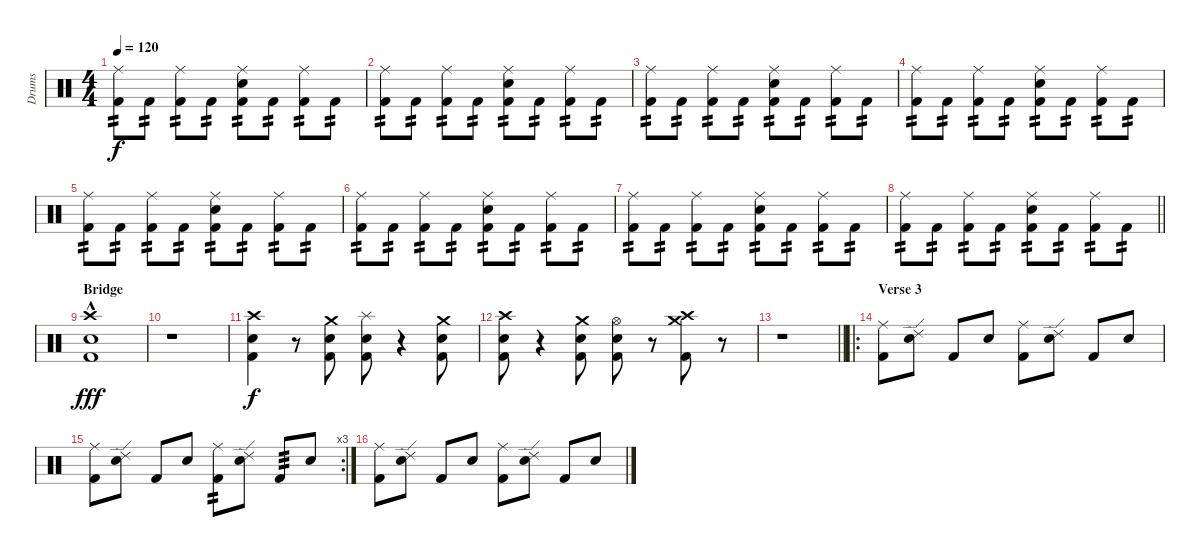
\track ("Drums " "Drums ") {instrument percussion}
\staff {score}
\articulation defaults
\ts (4 4)
\tempo 120
\clef neutral
\ks c
("Ride (middle)" "Kick (hit) 2").8{tp 2 dy f} "Kick (hit) 2".8{tp 2} ("Ride (middle)" "Kick (hit) 2").8{tp 2} "Kick (hit) 2".8{tp 2} ("Snare (hit) 2" "Ride (middle)" "Kick (hit) 2").8{tp 2} "Kick (hit) 2".8{tp 2} ("Ride (middle)" "Kick (hit) 2").8{tp 2} "Kick (hit) 2".8{tp 2} |
("Ride (middle)" "Kick (hit) 2").8{tp 2} "Kick (hit) 2".8{tp 2} ("Ride (middle)" "Kick (hit) 2").8{tp 2} "Kick (hit) 2".8{tp 2} ("Snare (hit) 2" "Ride (middle)" "Kick (hit) 2").8{tp 2} "Kick (hit) 2".8{tp 2} ("Ride (middle)" "Kick (hit) 2").8{tp 2} "Kick (hit) 2".8{tp 2} |
("Ride (middle)" "Kick (hit) 2").8{tp 2} "Kick (hit) 2".8{tp 2} ("Ride (middle)" "Kick (hit) 2").8{tp 2} "Kick (hit) 2".8{tp 2} ("Snare (hit) 2" "Ride (middle)" "Kick (hit) 2").8{tp 2} "Kick (hit) 2".8{tp 2} ("Ride (middle)" "Kick (hit) 2").8{tp 2} "Kick (hit) 2".8{tp 2} |
("Ride (middle)" "Kick (hit) 2").8{tp 2} "Kick (hit) 2".8{tp 2} ("Ride (middle)" "Kick (hit) 2").8{tp 2} "Kick (hit) 2".8{tp 2} ("Snare (hit) 2" "Ride (middle)" "Kick (hit) 2").8{tp 2} "Kick (hit) 2".8{tp 2} ("Ride (middle)" "Kick (hit) 2").8{tp 2} "Kick (hit) 2".8{tp 2} |
("Ride (middle)" "Kick (hit) 2").8{tp 2} "Kick (hit) 2".8{tp 2} ("Ride (middle)" "Kick (hit) 2").8{tp 2} "Kick (hit) 2".8{tp 2} ("Snare (hit) 2" "Ride (middle)" "Kick (hit) 2").8{tp 2} "Kick (hit) 2".8{tp 2} ("Ride (middle)" "Kick (hit) 2").8{tp 2} "Kick (hit) 2".8{tp 2} |
("Ride (middle)" "Kick (hit) 2").8{tp 2} "Kick (hit) 2".8{tp 2} ("Ride (middle)" "Kick (hit) 2").8{tp 2} "Kick (hit) 2".8{tp 2} ("Snare (hit) 2" "Ride (middle)" "Kick (hit) 2").8{tp 2} "Kick (hit) 2".8{tp 2} ("Ride (middle)" "Kick (hit) 2").8{tp 2} "Kick (hit) 2".8{tp 2} |
("Ride (middle)" "Kick (hit) 2").8{tp 2} "Kick (hit) 2".8{tp 2} ("Ride (middle)" "Kick (hit) 2").8{tp 2} "Kick (hit) 2".8{tp 2} ("Snare (hit) 2" "Ride (middle)" "Kick (hit) 2").8{tp 2} "Kick (hit) 2".8{tp 2} ("Ride (middle)" "Kick (hit) 2").8{tp 2} "Kick (hit) 2".8{tp 2} |
\barLineRight lightlight
("Ride (middle)" "Kick (hit) 2").8{tp 2} "Kick (hit) 2".8{tp 2} ("Ride (middle)" "Kick (hit) 2").8{tp 2} "Kick (hit) 2".8{tp 2} ("Snare (hit) 2" "Ride (middle)" "Kick (hit) 2").8{tp 2} "Kick (hit) 2".8{tp 2} ("Ride (middle)" "Kick (hit) 2").8{tp 2} "Kick (hit) 2".8{tp 2} |
\section ("" "Bridge")
("Crash high (hit)"{hac} "Snare (hit) 2"{hac} "Kick (hit) 2"{hac}).1{dy fff} |
r.1 |
("Crash high (hit)" "Snare (hit) 2" "Kick (hit) 2").4{dy f} r.8 ("Crash medium (hit)" "Kick (hit) 2" "Snare (hit) 2").8 ("Splash (hit)" "Kick (hit) 2" "Snare (hit) 2").8 r.4 ("Crash medium (hit)" "Kick (hit) 2" "Snare (hit) 2").8 |
("Crash high (hit)" "Kick (hit) 2" "Snare (hit) 2").8 r.4 ("Crash medium (hit)" "Kick (hit) 2" "Snare (hit) 2").8 ("Hi-Hat (open)" "Kick (hit) 2" "Snare (hit) 2").8 r.8 ("Crash medium (hit)" "Crash high (hit)" "Kick (hit) 2").8 r.8 |
\barLineRight lightlight
r.1 |
\ro
\section ("" "Verse 3")
("Ride (middle)" "Kick (hit) 2").8 ("Ride (edge) 2" "Snare (hit) 2").8 "Kick (hit) 2".8 "Snare (hit) 2".8 ("Ride (middle)" "Kick (hit) 2").8 ("Ride (edge) 2" "Snare (hit) 2").8 "Kick (hit) 2".8 "Snare (hit) 2".8 |
\rc 3
("Ride (middle)" "Kick (hit) 2").8 ("Ride (edge) 2" "Snare (hit) 2").8 "Kick (hit) 2".8 "Snare (hit) 2".8 ("Ride (middle)" "Kick (hit) 2").8{tp 2} ("Ride (edge) 2" "Snare (hit) 2").8 "Kick (hit) 2".8{tp 3} "Snare (hit) 2".8 |
("Ride (middle)" "Kick (hit) 2").8 ("Ride (edge) 2" "Snare (hit) 2").8 "Kick (hit) 2".8 "Snare (hit) 2".8 ("Ride (middle)" "Kick (hit) 2").8 ("Ride (edge) 2" "Snare (hit) 2").8 "Kick (hit) 2".8 "Snare (hit) 2".8
